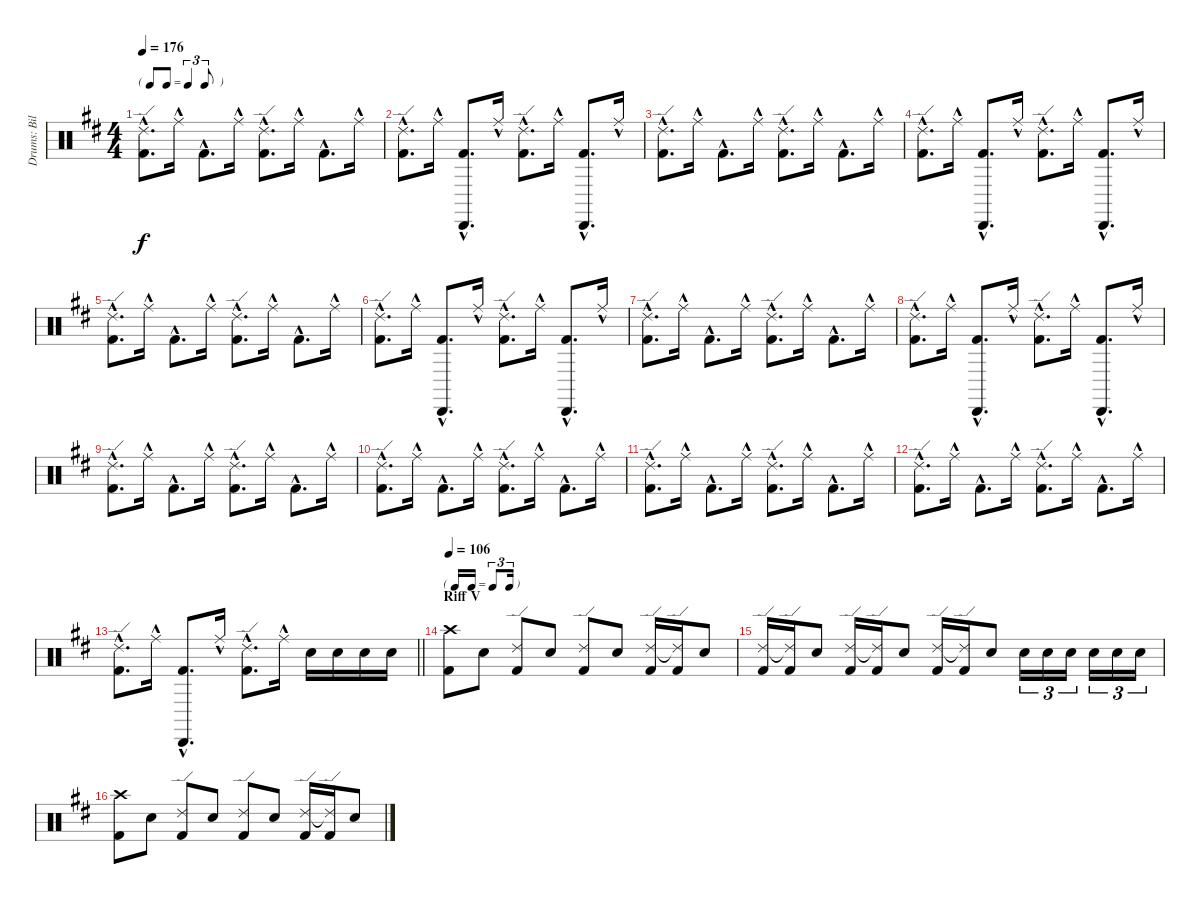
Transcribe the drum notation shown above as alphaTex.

\track ("Drums: Bill" "Drums: Bil") {instrument percussion}
\staff {score}
\articulation defaults
\ts (4 4)
\tf triplet8th
\tempo 176
\clef neutral
\ks d
("Ride (edge) 2"{hac} "Kick (hit) 2"{hac}).8{d dy f} "Ride (middle)"{hac}.16 "Kick (hit) 2"{hac}.8{d} "Ride (middle)"{hac}.16 ("Ride (edge) 2"{hac} "Kick (hit) 2"{hac}).8{d} "Ride (middle)"{hac}.16 "Kick (hit) 2"{hac}.8{d} "Ride (middle)"{hac}.16 |
("Ride (edge) 2"{hac} "Kick (hit) 2"{hac}).8{d} "Ride (middle)"{hac}.16 ("Cabasa (hit)" "Kick (hit) 2"{hac}).8{d} "Ride (middle)"{hac}.16 ("Ride (edge) 2"{hac} "Kick (hit) 2"{hac}).8{d} "Ride (middle)"{hac}.16 ("Cabasa (hit)" "Kick (hit) 2"{hac}).8{d} "Ride (middle)"{hac}.16 |
("Ride (edge) 2"{hac} "Kick (hit) 2"{hac}).8{d} "Ride (middle)"{hac}.16 "Kick (hit) 2"{hac}.8{d} "Ride (middle)"{hac}.16 ("Ride (edge) 2"{hac} "Kick (hit) 2"{hac}).8{d} "Ride (middle)"{hac}.16 "Kick (hit) 2"{hac}.8{d} "Ride (middle)"{hac}.16 |
("Ride (edge) 2"{hac} "Kick (hit) 2"{hac}).8{d} "Ride (middle)"{hac}.16 ("Cabasa (hit)" "Kick (hit) 2"{hac}).8{d} "Ride (middle)"{hac}.16 ("Ride (edge) 2"{hac} "Kick (hit) 2"{hac}).8{d volume 11} "Ride (middle)"{hac}.16 ("Cabasa (hit)" "Kick (hit) 2"{hac}).8{d} "Ride (middle)"{hac}.16 |
("Ride (edge) 2"{hac} "Kick (hit) 2"{hac}).8{d} "Ride (middle)"{hac}.16 "Kick (hit) 2"{hac}.8{d} "Ride (middle)"{hac}.16 ("Ride (edge) 2"{hac} "Kick (hit) 2"{hac}).8{d} "Ride (middle)"{hac}.16 "Kick (hit) 2"{hac}.8{d} "Ride (middle)"{hac}.16 |
("Ride (edge) 2"{hac} "Kick (hit) 2"{hac}).8{d} "Ride (middle)"{hac}.16 ("Cabasa (hit)" "Kick (hit) 2"{hac}).8{d} "Ride (middle)"{hac}.16 ("Ride (edge) 2"{hac} "Kick (hit) 2"{hac}).8{d} "Ride (middle)"{hac}.16 ("Cabasa (hit)" "Kick (hit) 2"{hac}).8{d} "Ride (middle)"{hac}.16 |
("Ride (edge) 2"{hac} "Kick (hit) 2"{hac}).8{d} "Ride (middle)"{hac}.16 "Kick (hit) 2"{hac}.8{d} "Ride (middle)"{hac}.16 ("Ride (edge) 2"{hac} "Kick (hit) 2"{hac}).8{d} "Ride (middle)"{hac}.16 "Kick (hit) 2"{hac}.8{d} "Ride (middle)"{hac}.16 |
("Ride (edge) 2"{hac} "Kick (hit) 2"{hac}).8{d} "Ride (middle)"{hac}.16 ("Cabasa (hit)" "Kick (hit) 2"{hac}).8{d} "Ride (middle)"{hac}.16 ("Ride (edge) 2"{hac} "Kick (hit) 2"{hac}).8{d} "Ride (middle)"{hac}.16 ("Cabasa (hit)" "Kick (hit) 2"{hac}).8{d} "Ride (middle)"{hac}.16 |
("Ride (edge) 2"{hac} "Kick (hit) 2"{hac}).8{d} "Ride (middle)"{hac}.16 "Kick (hit) 2"{hac}.8{d} "Ride (middle)"{hac}.16 ("Ride (edge) 2"{hac} "Kick (hit) 2"{hac}).8{d} "Ride (middle)"{hac}.16 "Kick (hit) 2"{hac}.8{d} "Ride (middle)"{hac}.16 |
("Ride (edge) 2"{hac} "Kick (hit) 2"{hac}).8{d} "Ride (middle)"{hac}.16 "Kick (hit) 2"{hac}.8{d} "Ride (middle)"{hac}.16 ("Ride (edge) 2"{hac} "Kick (hit) 2"{hac}).8{d} "Ride (middle)"{hac}.16 "Kick (hit) 2"{hac}.8{d} "Ride (middle)"{hac}.16 |
("Ride (edge) 2"{hac} "Kick (hit) 2"{hac}).8{d} "Ride (middle)"{hac}.16 "Kick (hit) 2"{hac}.8{d} "Ride (middle)"{hac}.16 ("Ride (edge) 2"{hac} "Kick (hit) 2"{hac}).8{d} "Ride (middle)"{hac}.16 "Kick (hit) 2"{hac}.8{d} "Ride (middle)"{hac}.16 |
("Ride (edge) 2"{hac} "Kick (hit) 2"{hac}).8{d} "Ride (middle)"{hac}.16 "Kick (hit) 2"{hac}.8{d} "Ride (middle)"{hac}.16 ("Ride (edge) 2"{hac} "Kick (hit) 2"{hac}).8{d} "Ride (middle)"{hac}.16 "Kick (hit) 2"{hac}.8{d} "Ride (middle)"{hac}.16 |
\barLineRight lightlight
("Ride (edge) 2"{hac} "Kick (hit) 2"{hac}).8{d} "Ride (middle)"{hac}.16 ("Cabasa (hit)" "Kick (hit) 2"{hac}).8{d} "Ride (middle)"{hac}.16 ("Ride (edge) 2"{hac} "Kick (hit) 2"{hac}).8{d} "Ride (middle)"{hac}.16 "Electric Snare (hit)".16{volume 16} "Electric Snare (hit)".16 "Electric Snare (hit)".16 "Electric Snare (hit)".16 |
\tf triplet16th
\section ("" "Riff V")
\tempo 106
("Crash high (hit)" "Kick (hit) 2").8 "Electric Snare (hit)".8 ("Ride (edge) 2" "Kick (hit) 2").8 "Electric Snare (hit)".8 ("Ride (edge) 2" "Kick (hit) 2").8 "Electric Snare (hit)".8 ("Ride (edge) 2" "Kick (hit) 2").16 ("Ride (edge) 2"{t} "Kick (hit) 2").16 "Electric Snare (hit)".8 |
("Ride (edge) 2" "Kick (hit) 2").16 ("Ride (edge) 2"{t} "Kick (hit) 2").16 "Electric Snare (hit)".8 ("Ride (edge) 2" "Kick (hit) 2").16 ("Ride (edge) 2"{t} "Kick (hit) 2").16 "Electric Snare (hit)".8 ("Ride (edge) 2" "Kick (hit) 2").16 ("Ride (edge) 2"{t} "Kick (hit) 2").16 "Electric Snare (hit)".8 "Electric Snare (hit)".16{tu (3 2)} "Electric Snare (hit)".16{tu (3 2)} "Electric Snare (hit)".16{tu (3 2) beam splitsecondary} "Electric Snare (hit)".16{tu (3 2)} "Electric Snare (hit)".16{tu (3 2)} "Electric Snare (hit)".16{tu (3 2)} |
("Crash high (hit)" "Kick (hit) 2").8 "Electric Snare (hit)".8 ("Ride (edge) 2" "Kick (hit) 2").8 "Electric Snare (hit)".8 ("Ride (edge) 2" "Kick (hit) 2").8 "Electric Snare (hit)".8 ("Ride (edge) 2" "Kick (hit) 2").16 ("Ride (edge) 2"{t} "Kick (hit) 2").16 "Electric Snare (hit)".8
